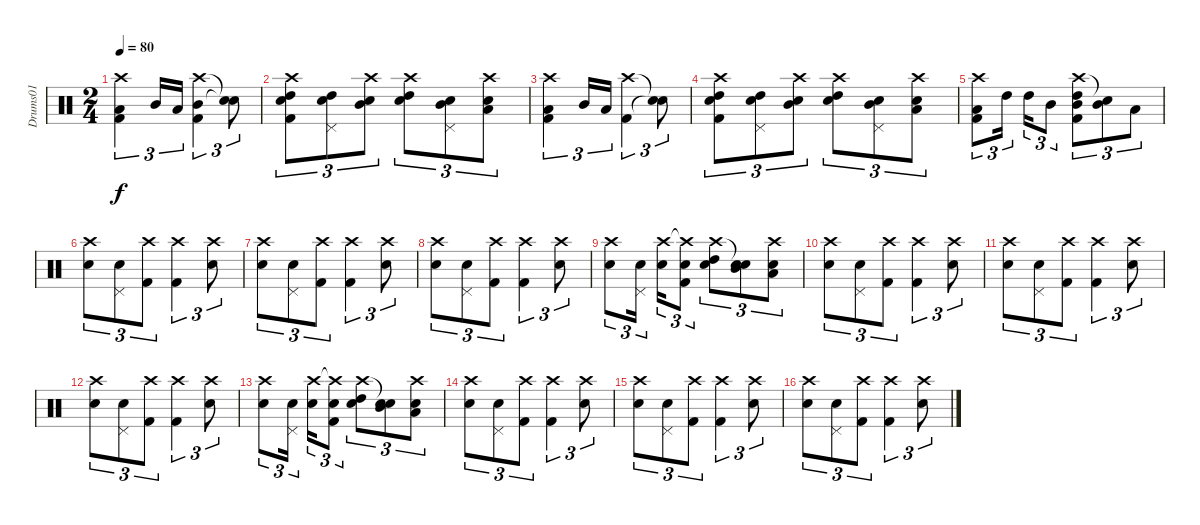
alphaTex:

\track ("Drums01" "Drums01") {instrument percussion}
\staff {score}
\articulation defaults
\ts (2 4)
\tempo 80
\clef neutral
\ks c
("Crash high (hit)" "Low Tom (hit)" "Kick (hit) 2").4{tu (3 2) dy f} "Mid Tom (hit)".16{tu (3 2)} "Low Tom (hit)".16{tu (3 2)} ("Crash high (hit)" "Mid Tom (hit)" "Kick (hit) 2").4{tu (3 2)} ("Snare (hit)"{t} "Snare (hit)"{t}).8{tu (3 2)} |
("Crash high (hit)" "Snare (hit) 2" "High Tom (hit)" "Kick (hit) 2").8{tu (3 2)} ("Pedal Hi-Hat (hit)" "Snare (hit) 2" "High Tom (hit)").8{tu (3 2)} ("Crash high (hit)" "Snare (hit) 2" "Mid Tom (hit)").8{tu (3 2)} ("Crash high (hit)" "Snare (hit) 2" "High Tom (hit)").8{tu (3 2)} ("Pedal Hi-Hat (hit)" "Snare (hit) 2" "Mid Tom (hit)").8{tu (3 2)} ("Crash high (hit)" "Snare (hit) 2" "Low Tom (hit)").8{tu (3 2)} |
("Crash high (hit)" "Low Tom (hit)" "Kick (hit) 2").4{tu (3 2)} "Mid Tom (hit)".16{tu (3 2)} "Low Tom (hit)".16{tu (3 2)} ("Crash high (hit)" "Kick (hit) 2").4{tu (3 2)} ("Snare (hit)"{t} "Snare (hit)"{t}).8{tu (3 2)} |
("Crash high (hit)" "Snare (hit) 2" "High Tom (hit)" "Kick (hit) 2").8{tu (3 2)} ("Pedal Hi-Hat (hit)" "Snare (hit) 2" "High Tom (hit)").8{tu (3 2)} ("Crash high (hit)" "Snare (hit) 2" "Mid Tom (hit)").8{tu (3 2)} ("Crash high (hit)" "Snare (hit) 2" "High Tom (hit)").8{tu (3 2)} ("Pedal Hi-Hat (hit)" "Snare (hit) 2" "Mid Tom (hit)").8{tu (3 2)} ("Crash high (hit)" "Snare (hit) 2" "Low Tom (hit)").8{tu (3 2)} |
("Crash high (hit)" "Low Tom (hit)" "Kick (hit) 2").8{tu (3 2)} "High Tom (hit)".16{tu (3 2) beam splitsecondary} "High Tom (hit)".16{tu (3 2)} "Mid Tom (hit)".8{tu (3 2)} ("Crash high (hit)" "Mid Tom (hit)" "High Tom (hit)" "Kick (hit) 2").8{tu (3 2)} ("Snare (hit)"{t} "Mid Tom (hit)").8{tu (3 2)} "Low Tom (hit)".8{tu (3 2)} |
("Crash high (hit)" "Snare (hit) 2").8{tu (3 2)} ("Pedal Hi-Hat (hit)" "Snare (hit) 2").8{tu (3 2)} ("Crash high (hit)" "Kick (hit) 2").8{tu (3 2)} ("Crash high (hit)" "Kick (hit) 2").4{tu (3 2)} ("Crash high (hit)" "Snare (hit) 2").8{tu (3 2)} |
("Crash high (hit)" "Snare (hit) 2").8{tu (3 2)} ("Pedal Hi-Hat (hit)" "Snare (hit) 2").8{tu (3 2)} ("Crash high (hit)" "Kick (hit) 2").8{tu (3 2)} ("Crash high (hit)" "Kick (hit) 2").4{tu (3 2)} ("Crash high (hit)" "Snare (hit) 2").8{tu (3 2)} |
("Crash high (hit)" "Snare (hit) 2").8{tu (3 2)} ("Pedal Hi-Hat (hit)" "Snare (hit) 2").8{tu (3 2)} ("Crash high (hit)" "Kick (hit) 2").8{tu (3 2)} ("Crash high (hit)" "Kick (hit) 2").4{tu (3 2)} ("Crash high (hit)" "Snare (hit) 2").8{tu (3 2)} |
("Crash high (hit)" "Snare (hit) 2").8{tu (3 2)} ("Pedal Hi-Hat (hit)" "Snare (hit) 2").16{tu (3 2) beam splitsecondary} ("Crash high (hit)" "Snare (hit) 2").16{tu (3 2)} ("Crash high (hit)"{t} "Snare (hit) 2" "Kick (hit) 2").8{tu (3 2)} ("Crash high (hit)" "High Tom (hit)" "Snare (hit) 2").8{tu (3 2)} ("Snare (hit)"{t} "Mid Tom (hit)" "Snare (hit) 2").8{tu (3 2)} ("Crash high (hit)" "Low Tom (hit)" "Snare (hit) 2").8{tu (3 2)} |
("Crash high (hit)" "Snare (hit) 2").8{tu (3 2)} ("Pedal Hi-Hat (hit)" "Snare (hit) 2").8{tu (3 2)} ("Crash high (hit)" "Kick (hit) 2").8{tu (3 2)} ("Crash high (hit)" "Kick (hit) 2").4{tu (3 2)} ("Crash high (hit)" "Snare (hit) 2").8{tu (3 2)} |
("Crash high (hit)" "Snare (hit) 2").8{tu (3 2)} ("Pedal Hi-Hat (hit)" "Snare (hit) 2").8{tu (3 2)} ("Crash high (hit)" "Kick (hit) 2").8{tu (3 2)} ("Crash high (hit)" "Kick (hit) 2").4{tu (3 2)} ("Crash high (hit)" "Snare (hit) 2").8{tu (3 2)} |
("Crash high (hit)" "Snare (hit) 2").8{tu (3 2)} ("Pedal Hi-Hat (hit)" "Snare (hit) 2").8{tu (3 2)} ("Crash high (hit)" "Kick (hit) 2").8{tu (3 2)} ("Crash high (hit)" "Kick (hit) 2").4{tu (3 2)} ("Crash high (hit)" "Snare (hit) 2").8{tu (3 2)} |
("Crash high (hit)" "Snare (hit) 2").8{tu (3 2)} ("Pedal Hi-Hat (hit)" "Snare (hit) 2").16{tu (3 2) beam splitsecondary} ("Crash high (hit)" "Snare (hit) 2").16{tu (3 2)} ("Crash high (hit)"{t} "Snare (hit) 2" "Kick (hit) 2").8{tu (3 2)} ("Crash high (hit)" "High Tom (hit)" "Snare (hit) 2").8{tu (3 2)} ("Snare (hit)"{t} "Mid Tom (hit)" "Snare (hit) 2").8{tu (3 2)} ("Crash high (hit)" "Low Tom (hit)" "Snare (hit) 2").8{tu (3 2)} |
("Crash high (hit)" "Snare (hit) 2").8{tu (3 2)} ("Pedal Hi-Hat (hit)" "Snare (hit) 2").8{tu (3 2)} ("Crash high (hit)" "Kick (hit) 2").8{tu (3 2)} ("Crash high (hit)" "Kick (hit) 2").4{tu (3 2)} ("Crash high (hit)" "Snare (hit) 2").8{tu (3 2)} |
("Crash high (hit)" "Snare (hit) 2").8{tu (3 2)} ("Pedal Hi-Hat (hit)" "Snare (hit) 2").8{tu (3 2)} ("Crash high (hit)" "Kick (hit) 2").8{tu (3 2)} ("Crash high (hit)" "Kick (hit) 2").4{tu (3 2)} ("Crash high (hit)" "Snare (hit) 2").8{tu (3 2)} |
("Crash high (hit)" "Snare (hit) 2").8{tu (3 2)} ("Pedal Hi-Hat (hit)" "Snare (hit) 2").8{tu (3 2)} ("Crash high (hit)" "Kick (hit) 2").8{tu (3 2)} ("Crash high (hit)" "Kick (hit) 2").4{tu (3 2)} ("Crash high (hit)" "Snare (hit) 2").8{tu (3 2)}
